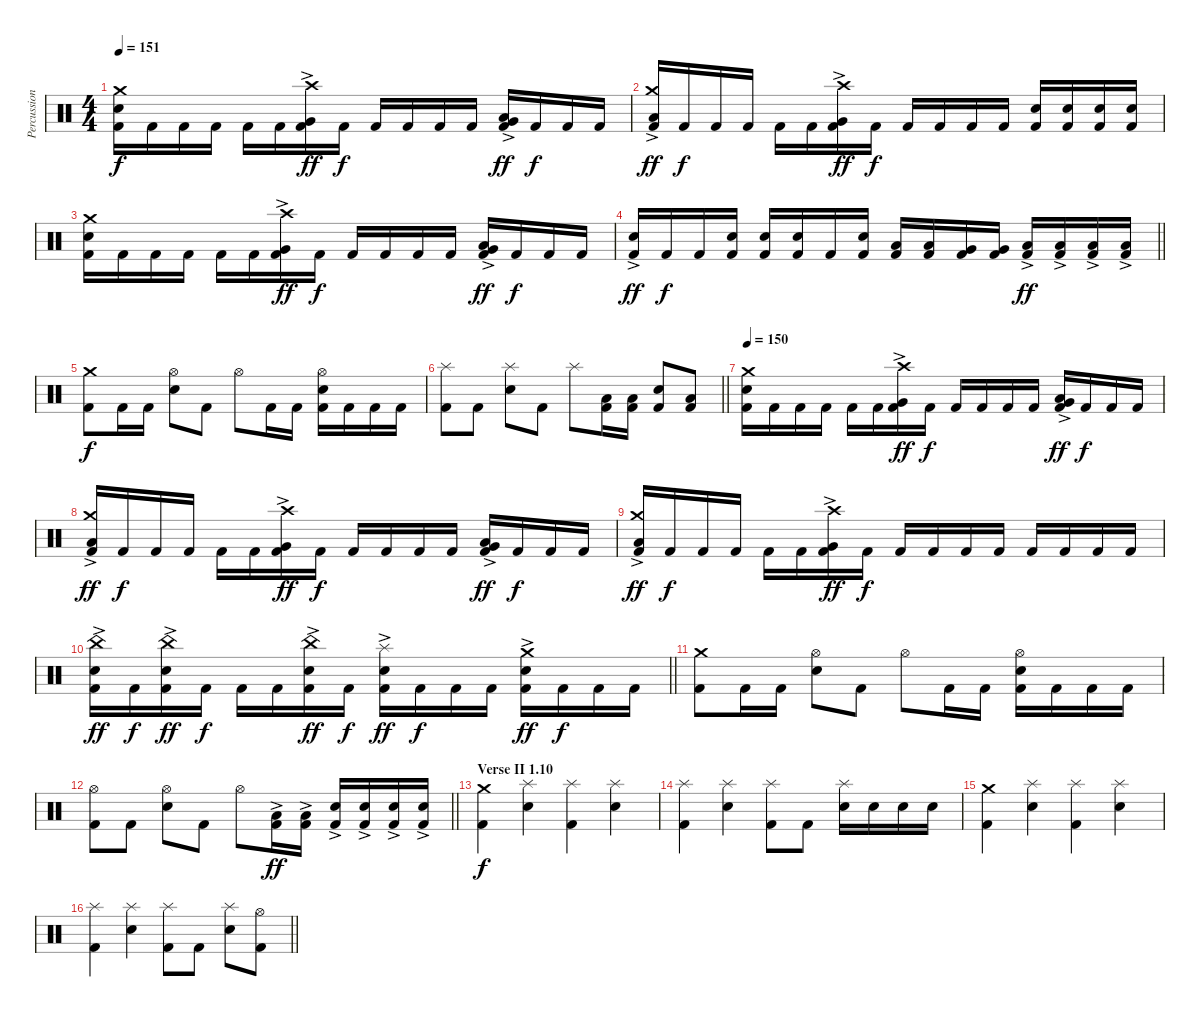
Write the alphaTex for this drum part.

\track ("Percussion" "Percussion") {instrument percussion}
\staff {score}
\articulation defaults
\ts (4 4)
\section ("" "")
\tempo 151
\clef neutral
\ks c
("Kick (hit) 2" "Snare (hit) 2" "Crash medium (hit)").16{dy f} "Kick (hit) 2".16 "Kick (hit) 2".16 "Kick (hit) 2".16 "Kick (hit) 2".16 "Kick (hit) 2".16 ("Kick (hit) 2" "Very Low Tom (hit)"{ac} "Crash high (hit)").16{dy ff} "Kick (hit) 2".16{dy f} "Kick (hit) 2".16 "Kick (hit) 2".16 "Kick (hit) 2".16 "Kick (hit) 2".16 ("Kick (hit) 2" "Low Floor Tom (hit)"{ac} "Very Low Tom (hit)"{ac}).16{dy ff} "Kick (hit) 2".16{dy f} "Kick (hit) 2".16 "Kick (hit) 2".16 |
("Kick (hit) 2" "Low Tom (hit)"{ac} "Crash medium (hit)").16{dy ff} "Kick (hit) 2".16{dy f} "Kick (hit) 2".16 "Kick (hit) 2".16 "Kick (hit) 2".16 "Kick (hit) 2".16 ("Kick (hit) 2" "Very Low Tom (hit)"{ac} "Crash high (hit)").16{dy ff} "Kick (hit) 2".16{dy f} "Kick (hit) 2".16 "Kick (hit) 2".16 "Kick (hit) 2".16 "Kick (hit) 2".16 ("Kick (hit) 2" "Snare (hit) 2").16 ("Kick (hit) 2" "Snare (hit) 2").16 ("Kick (hit) 2" "Snare (hit) 2").16 ("Kick (hit) 2" "Snare (hit) 2").16 |
("Kick (hit) 2" "Snare (hit) 2" "Crash medium (hit)").16 "Kick (hit) 2".16 "Kick (hit) 2".16 "Kick (hit) 2".16 "Kick (hit) 2".16 "Kick (hit) 2".16 ("Kick (hit) 2" "Very Low Tom (hit)"{ac} "Crash high (hit)").16{dy ff} "Kick (hit) 2".16{dy f} "Kick (hit) 2".16 "Kick (hit) 2".16 "Kick (hit) 2".16 "Kick (hit) 2".16 ("Kick (hit) 2" "Low Floor Tom (hit)"{ac} "Very Low Tom (hit)"{ac}).16{dy ff} "Kick (hit) 2".16{dy f} "Kick (hit) 2".16 "Kick (hit) 2".16 |
\barLineRight lightlight
("Kick (hit) 2" "Snare (hit) 2"{ac}).16{dy ff} "Kick (hit) 2".16{dy f} "Kick (hit) 2".16 ("Kick (hit) 2" "Snare (hit) 2").16 ("Kick (hit) 2" "Snare (hit) 2").16 ("Kick (hit) 2" "Snare (hit) 2").16 "Kick (hit) 2".16 ("Kick (hit) 2" "Snare (hit) 2").16 ("Kick (hit) 2" "Low Tom (hit)").16 ("Kick (hit) 2" "Low Tom (hit)").16 ("Kick (hit) 2" "Very Low Tom (hit)").16 ("Kick (hit) 2" "Very Low Tom (hit)").16 ("Kick (hit) 2" "Low Floor Tom (hit)"{ac}).16{dy ff} ("Kick (hit) 2" "Low Floor Tom (hit)"{ac}).16 ("Kick (hit) 2" "Low Floor Tom (hit)"{ac}).16 ("Kick (hit) 2" "Low Floor Tom (hit)"{ac}).16 |
\section ("" "")
("Kick (hit) 2" "Crash medium (hit)").8{dy f} "Kick (hit) 2".16 "Kick (hit) 2".16 ("Snare (hit) 2" "Hi-Hat (open)").8 "Kick (hit) 2".8 "Hi-Hat (open)".8 "Kick (hit) 2".16 "Kick (hit) 2".16 ("Kick (hit) 2" "Snare (hit) 2" "Hi-Hat (open)").16 "Kick (hit) 2".16 "Kick (hit) 2".16 "Kick (hit) 2".16 |
\barLineRight lightlight
("Kick (hit) 2" "Splash (hit)").8 "Kick (hit) 2".8 ("Snare (hit) 2" "Splash (hit)").8 "Kick (hit) 2".8 "Splash (hit)".8 ("Kick (hit) 2" "Low Tom (hit)").16 ("Kick (hit) 2" "Low Tom (hit)").16 ("Kick (hit) 2" "Snare (hit) 2").8 ("Kick (hit) 2" "Low Floor Tom (hit)").8 |
\section ("" "")
\tempo 150
("Kick (hit) 2" "Snare (hit) 2" "Crash medium (hit)").16 "Kick (hit) 2".16 "Kick (hit) 2".16 "Kick (hit) 2".16 "Kick (hit) 2".16 "Kick (hit) 2".16 ("Kick (hit) 2" "Very Low Tom (hit)"{ac} "Crash high (hit)").16{dy ff} "Kick (hit) 2".16{dy f} "Kick (hit) 2".16 "Kick (hit) 2".16 "Kick (hit) 2".16 "Kick (hit) 2".16 ("Kick (hit) 2" "Low Floor Tom (hit)"{ac} "Very Low Tom (hit)"{ac}).16{dy ff} "Kick (hit) 2".16{dy f} "Kick (hit) 2".16 "Kick (hit) 2".16 |
("Kick (hit) 2" "Low Tom (hit)"{ac} "Crash medium (hit)").16{dy ff} "Kick (hit) 2".16{dy f} "Kick (hit) 2".16 "Kick (hit) 2".16 "Kick (hit) 2".16 "Kick (hit) 2".16 ("Kick (hit) 2" "Very Low Tom (hit)"{ac} "Crash high (hit)").16{dy ff} "Kick (hit) 2".16{dy f} "Kick (hit) 2".16 "Kick (hit) 2".16 "Kick (hit) 2".16 "Kick (hit) 2".16 ("Kick (hit) 2" "Low Floor Tom (hit)"{ac} "Very Low Tom (hit)"{ac}).16{dy ff} "Kick (hit) 2".16{dy f} "Kick (hit) 2".16 "Kick (hit) 2".16 |
("Kick (hit) 2" "Low Tom (hit)"{ac} "Crash medium (hit)").16{dy ff} "Kick (hit) 2".16{dy f} "Kick (hit) 2".16 "Kick (hit) 2".16 "Kick (hit) 2".16 "Kick (hit) 2".16 ("Kick (hit) 2" "Very Low Tom (hit)"{ac} "Crash high (hit)").16{dy ff} "Kick (hit) 2".16{dy f} "Kick (hit) 2".16 "Kick (hit) 2".16 "Kick (hit) 2".16 "Kick (hit) 2".16 "Kick (hit) 2".16 "Kick (hit) 2".16 "Kick (hit) 2".16 "Kick (hit) 2".16 |
\barLineRight lightlight
("Kick (hit) 2" "Snare (hit) 2"{ac} "China (hit)").16{dy ff} "Kick (hit) 2".16{dy f} ("Kick (hit) 2" "Snare (hit) 2"{ac} "China (hit)").16{dy ff} "Kick (hit) 2".16{dy f} "Kick (hit) 2".16 "Kick (hit) 2".16 ("Kick (hit) 2" "Snare (hit) 2"{ac} "China (hit)").16{dy ff} "Kick (hit) 2".16{dy f} ("Kick (hit) 2" "Snare (hit) 2"{ac} "Splash (hit)").16{dy ff} "Kick (hit) 2".16{dy f} "Kick (hit) 2".16 "Kick (hit) 2".16 ("Kick (hit) 2" "Snare (hit) 2"{ac} "Crash medium (hit)").16{dy ff} "Kick (hit) 2".16{dy f} "Kick (hit) 2".16 "Kick (hit) 2".16 |
\section ("" "")
("Kick (hit) 2" "Crash medium (hit)").8 "Kick (hit) 2".16 "Kick (hit) 2".16 ("Snare (hit) 2" "Hi-Hat (open)").8 "Kick (hit) 2".8 "Hi-Hat (open)".8 "Kick (hit) 2".16 "Kick (hit) 2".16 ("Kick (hit) 2" "Snare (hit) 2" "Hi-Hat (open)").16 "Kick (hit) 2".16 "Kick (hit) 2".16 "Kick (hit) 2".16 |
\barLineRight lightlight
("Kick (hit) 2" "Hi-Hat (open)").8 "Kick (hit) 2".8 ("Snare (hit) 2" "Hi-Hat (open)").8 "Kick (hit) 2".8 "Hi-Hat (open)".8 ("Kick (hit) 2" "Low Tom (hit)"{ac}).16{dy ff} ("Kick (hit) 2" "Low Tom (hit)"{ac}).16 ("Kick (hit) 2" "Snare (hit) 2"{ac}).16 ("Kick (hit) 2" "Snare (hit) 2"{ac}).16 ("Kick (hit) 2" "Snare (hit) 2"{ac}).16 ("Kick (hit) 2" "Snare (hit) 2"{ac}).16 |
\section ("" "Verse II 1.10")
("Kick (hit) 2" "Crash medium (hit)").4{dy f} ("Snare (hit) 2" "Splash (hit)").4 ("Kick (hit) 2" "Splash (hit)").4 ("Snare (hit) 2" "Splash (hit)").4 |
("Kick (hit) 2" "Splash (hit)").4 ("Snare (hit) 2" "Splash (hit)").4 ("Kick (hit) 2" "Splash (hit)").8 "Kick (hit) 2".8 ("Snare (hit) 2" "Splash (hit)").16 "Snare (hit) 2".16 "Snare (hit) 2".16 "Snare (hit) 2".16 |
("Kick (hit) 2" "Crash medium (hit)").4 ("Snare (hit) 2" "Splash (hit)").4 ("Kick (hit) 2" "Splash (hit)").4 ("Snare (hit) 2" "Splash (hit)").4 |
\barLineRight lightlight
("Kick (hit) 2" "Splash (hit)").4 ("Snare (hit) 2" "Splash (hit)").4 ("Kick (hit) 2" "Splash (hit)").8 "Kick (hit) 2".8 ("Snare (hit) 2" "Splash (hit)").8 ("Kick (hit) 2" "Hi-Hat (open)").8
